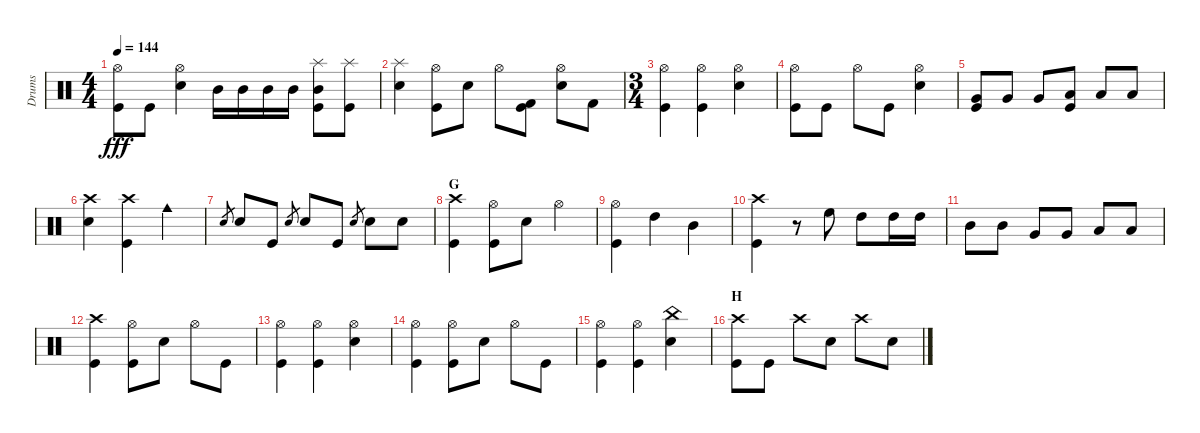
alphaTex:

\track ("Drums" "Drums") {instrument percussion}
\staff {score}
\articulation defaults
\ts (4 4)
\tempo 144
\clef neutral
\ks c
("Hi-Hat (open)" "Kick (hit)").8{dy fff} "Kick (hit)".8 ("Hi-Hat (open)" "Snare (hit) 2").4 "Mid Tom (hit)".16 "Mid Tom (hit)".16 "Mid Tom (hit)".16 "Mid Tom (hit)".16 ("Splash (hit)" "Mid Tom (hit)" "Kick (hit)").8 ("Splash (hit)" "Kick (hit)").8 |
("Splash (hit)" "Snare (hit) 2").4 ("Hi-Hat (open)" "Kick (hit)").8 "Snare (hit) 2".8 "Hi-Hat (open)".8 ("Kick (hit) 2" "Kick (hit)").8 ("Hi-Hat (open)" "Snare (hit) 2").8 "Kick (hit) 2".8 |
\ts (3 4)
("Hi-Hat (open)" "Kick (hit)").4 ("Hi-Hat (open)" "Kick (hit)").4 ("Hi-Hat (open)" "Snare (hit) 2").4 |
("Hi-Hat (open)" "Kick (hit)").8 "Kick (hit)".8 "Hi-Hat (open)".8 "Kick (hit)".8 ("Hi-Hat (open)" "Snare (hit) 2").4 |
("Very Low Tom (hit)" "Kick (hit)").8 "Very Low Tom (hit)".8 "Very Low Tom (hit)".8 ("Low Floor Tom (hit)" "Kick (hit)").8 "Low Floor Tom (hit)".8 "Low Floor Tom (hit)".8 |
("Crash high (hit)" "Snare (hit) 2").4 ("Crash high (hit)" "Kick (hit)").4 "Cowbell medium (hit)".4 |
"Snare (hit) 2".8{gr} "Snare (hit) 2".8 "Kick (hit)".8 "Snare (hit) 2".8{gr} "Snare (hit) 2".8 "Kick (hit)".8 "Snare (hit) 2".8{gr} "Snare (hit) 2".8 "Snare (hit) 2".8 |
\section ("" "G")
("Crash high (hit)" "Kick (hit)").4 ("Hi-Hat (open)" "Kick (hit)").8 "Snare (hit) 2".8 "Hi-Hat (open)".4 |
("Hi-Hat (open)" "Kick (hit)").4 "High Tom (hit)".4 "Mid Tom (hit)".4 |
("Crash high (hit)" "Kick (hit)").4 r.8 "High Floor Tom (hit)".8 "High Tom (hit)".8 "High Tom (hit)".16 "High Tom (hit)".16 |
"Mid Tom (hit)".8 "Mid Tom (hit)".8 "Very Low Tom (hit)".8 "Very Low Tom (hit)".8 "Low Floor Tom (hit)".8 "Low Floor Tom (hit)".8 |
("Crash high (hit)" "Kick (hit)").4 ("Hi-Hat (open)" "Kick (hit)").8 "Snare (hit) 2".8 "Hi-Hat (open)".8 "Kick (hit)".8 |
("Hi-Hat (open)" "Kick (hit)").4 ("Hi-Hat (open)" "Kick (hit)").4 ("Hi-Hat (open)" "Snare (hit) 2").4 |
("Hi-Hat (open)" "Kick (hit)").4 ("Hi-Hat (open)" "Kick (hit)").8 "Snare (hit) 2".8 "Hi-Hat (open)".8 "Kick (hit)".8 |
("Hi-Hat (open)" "Kick (hit)").4 ("Hi-Hat (open)" "Kick (hit)").4 ("China (hit)" "Snare (hit) 2").4 |
\section ("" "H")
("Crash high (hit)" "Kick (hit)").8 "Kick (hit)".8 "Crash high (hit)".8 "Snare (hit) 2".8 "Crash high (hit)".8 "Snare (hit) 2".8
